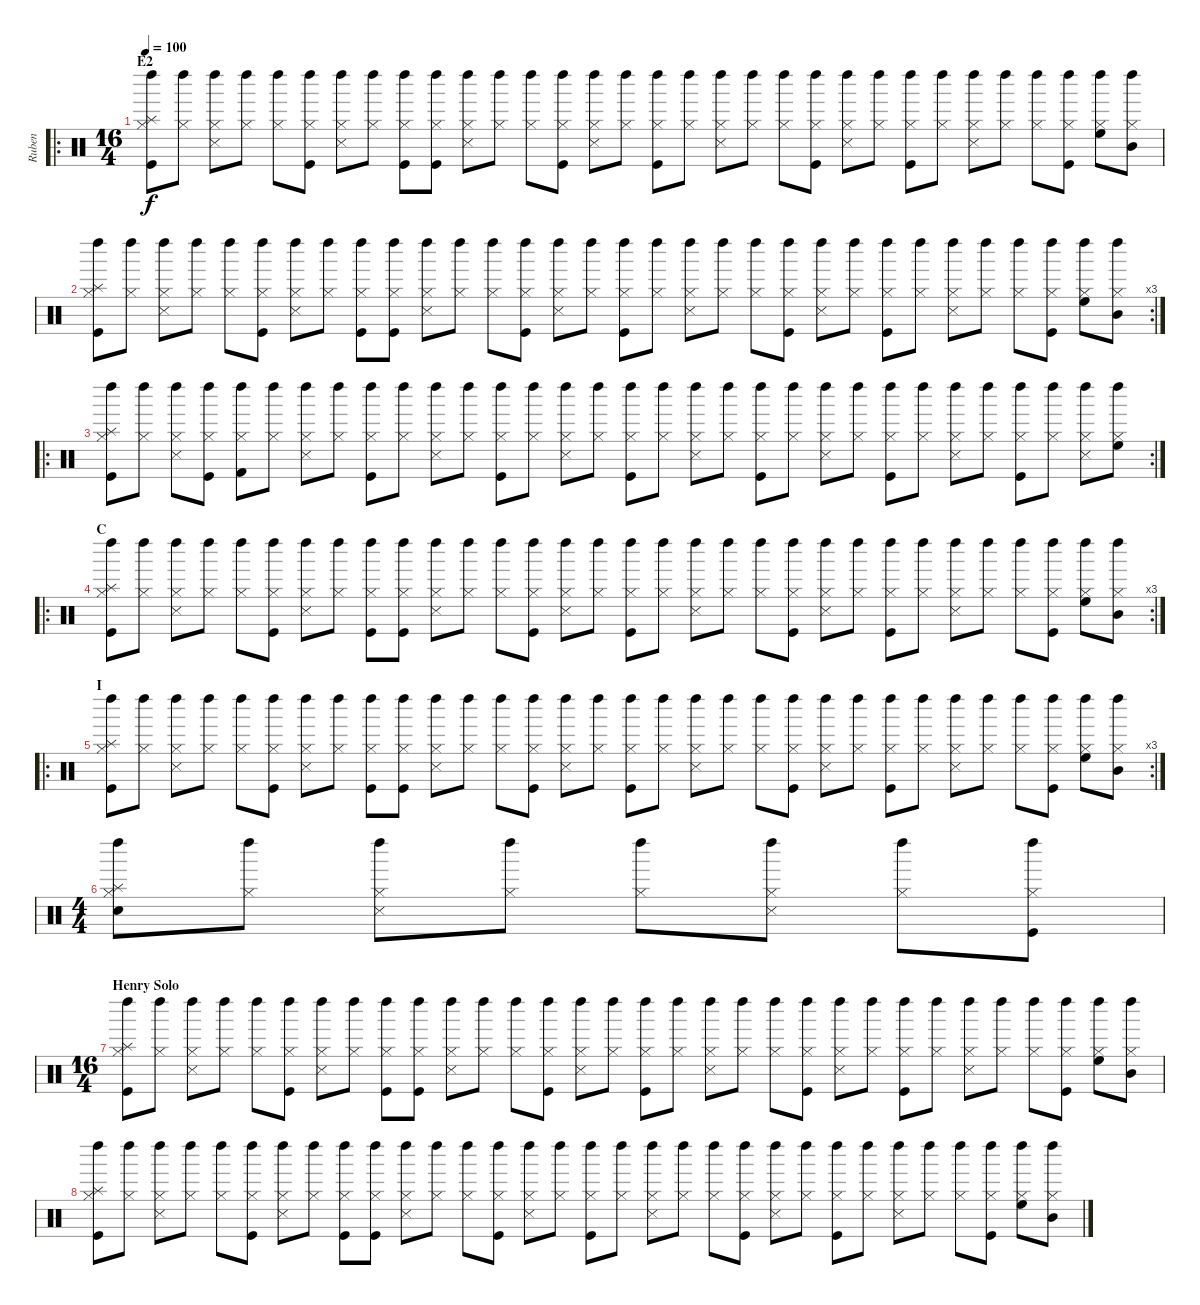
\track ("Ruben" "Ruben") {instrument percussion}
\staff {score}
\articulation defaults
\ro
\ts (16 4)
\section ("" "E2")
\tempo 100
\clef neutral
\ks c
("Left Maraca (hit)" "Hi-Hat (closed)" "Splash (hit)" "Kick (hit)").8{dy f} ("Left Maraca (hit)" "Hi-Hat (closed)").8 ("Left Maraca (hit)" "Hi-Hat (closed)" "Snare (side stick) 3").8 ("Left Maraca (hit)" "Hi-Hat (closed)").8 ("Left Maraca (hit)" "Hi-Hat (closed)").8 ("Left Maraca (hit)" "Hi-Hat (closed)" "Kick (hit)").8 ("Left Maraca (hit)" "Hi-Hat (closed)" "Snare (side stick) 3").8 ("Left Maraca (hit)" "Hi-Hat (closed)").8 ("Left Maraca (hit)" "Hi-Hat (closed)" "Kick (hit)").8 ("Left Maraca (hit)" "Hi-Hat (closed)" "Kick (hit)").8 ("Left Maraca (hit)" "Hi-Hat (closed)" "Snare (side stick) 3").8 ("Left Maraca (hit)" "Hi-Hat (closed)").8 ("Left Maraca (hit)" "Hi-Hat (closed)").8 ("Left Maraca (hit)" "Hi-Hat (closed)" "Kick (hit)").8 ("Left Maraca (hit)" "Hi-Hat (closed)" "Snare (side stick) 3").8 ("Left Maraca (hit)" "Hi-Hat (closed)").8 ("Left Maraca (hit)" "Hi-Hat (closed)" "Kick (hit)").8 ("Left Maraca (hit)" "Hi-Hat (closed)").8 ("Left Maraca (hit)" "Hi-Hat (closed)" "Snare (side stick) 3").8 ("Left Maraca (hit)" "Hi-Hat (closed)").8 ("Left Maraca (hit)" "Hi-Hat (closed)").8 ("Left Maraca (hit)" "Hi-Hat (closed)" "Kick (hit)").8 ("Left Maraca (hit)" "Hi-Hat (closed)" "Snare (side stick) 3").8 ("Left Maraca (hit)" "Hi-Hat (closed)").8 ("Left Maraca (hit)" "Hi-Hat (closed)" "Kick (hit)").8 ("Left Maraca (hit)" "Hi-Hat (closed)").8 ("Left Maraca (hit)" "Hi-Hat (closed)" "Snare (side stick) 3").8 ("Left Maraca (hit)" "Hi-Hat (closed)").8 ("Left Maraca (hit)" "Hi-Hat (closed)").8 ("Left Maraca (hit)" "Hi-Hat (closed)" "Kick (hit)").8 ("Left Maraca (hit)" "Hi-Hat (closed)" "High Floor Tom (hit)").8 ("Left Maraca (hit)" "Hi-Hat (closed)" "Mid Tom (hit)").8 |
\rc 3
("Left Maraca (hit)" "Hi-Hat (closed)" "Splash (hit)" "Kick (hit)").8 ("Left Maraca (hit)" "Hi-Hat (closed)").8 ("Left Maraca (hit)" "Hi-Hat (closed)" "Snare (side stick) 3").8 ("Left Maraca (hit)" "Hi-Hat (closed)").8 ("Left Maraca (hit)" "Hi-Hat (closed)").8 ("Left Maraca (hit)" "Hi-Hat (closed)" "Kick (hit)").8 ("Left Maraca (hit)" "Hi-Hat (closed)" "Snare (side stick) 3").8 ("Left Maraca (hit)" "Hi-Hat (closed)").8 ("Left Maraca (hit)" "Hi-Hat (closed)" "Kick (hit)").8 ("Left Maraca (hit)" "Hi-Hat (closed)" "Kick (hit)").8 ("Left Maraca (hit)" "Hi-Hat (closed)" "Snare (side stick) 3").8 ("Left Maraca (hit)" "Hi-Hat (closed)").8 ("Left Maraca (hit)" "Hi-Hat (closed)").8 ("Left Maraca (hit)" "Hi-Hat (closed)" "Kick (hit)").8 ("Left Maraca (hit)" "Hi-Hat (closed)" "Snare (side stick) 3").8 ("Left Maraca (hit)" "Hi-Hat (closed)").8 ("Left Maraca (hit)" "Hi-Hat (closed)" "Kick (hit)").8 ("Left Maraca (hit)" "Hi-Hat (closed)").8 ("Left Maraca (hit)" "Hi-Hat (closed)" "Snare (side stick) 3").8 ("Left Maraca (hit)" "Hi-Hat (closed)").8 ("Left Maraca (hit)" "Hi-Hat (closed)").8 ("Left Maraca (hit)" "Hi-Hat (closed)" "Kick (hit)").8 ("Left Maraca (hit)" "Hi-Hat (closed)" "Snare (side stick) 3").8 ("Left Maraca (hit)" "Hi-Hat (closed)").8 ("Left Maraca (hit)" "Hi-Hat (closed)" "Kick (hit)").8 ("Left Maraca (hit)" "Hi-Hat (closed)").8 ("Left Maraca (hit)" "Hi-Hat (closed)" "Snare (side stick) 3").8 ("Left Maraca (hit)" "Hi-Hat (closed)").8 ("Left Maraca (hit)" "Hi-Hat (closed)").8 ("Left Maraca (hit)" "Hi-Hat (closed)" "Kick (hit)").8 ("Left Maraca (hit)" "Hi-Hat (closed)" "High Floor Tom (hit)").8 ("Left Maraca (hit)" "Hi-Hat (closed)" "Mid Tom (hit)").8 |
\ro
\rc 2
("Left Maraca (hit)" "Hi-Hat (closed)" "Splash (hit)" "Kick (hit)").8 ("Left Maraca (hit)" "Hi-Hat (closed)").8 ("Left Maraca (hit)" "Hi-Hat (closed)" "Snare (side stick) 3").8 ("Left Maraca (hit)" "Hi-Hat (closed)" "Kick (hit)").8 ("Left Maraca (hit)" "Hi-Hat (closed)" "Kick (hit) 2").8 ("Left Maraca (hit)" "Hi-Hat (closed)").8 ("Left Maraca (hit)" "Hi-Hat (closed)" "Snare (side stick) 3").8 ("Left Maraca (hit)" "Hi-Hat (closed)").8 ("Left Maraca (hit)" "Hi-Hat (closed)" "Kick (hit)").8 ("Left Maraca (hit)" "Hi-Hat (closed)").8 ("Left Maraca (hit)" "Hi-Hat (closed)" "Snare (side stick) 3").8 ("Left Maraca (hit)" "Hi-Hat (closed)").8 ("Left Maraca (hit)" "Hi-Hat (closed)" "Kick (hit)").8 ("Left Maraca (hit)" "Hi-Hat (closed)").8 ("Left Maraca (hit)" "Hi-Hat (closed)" "Snare (side stick) 3").8 ("Left Maraca (hit)" "Hi-Hat (closed)").8 ("Left Maraca (hit)" "Hi-Hat (closed)" "Kick (hit)").8 ("Left Maraca (hit)" "Hi-Hat (closed)").8 ("Left Maraca (hit)" "Hi-Hat (closed)" "Snare (side stick) 3").8 ("Left Maraca (hit)" "Hi-Hat (closed)").8 ("Left Maraca (hit)" "Hi-Hat (closed)" "Kick (hit)").8 ("Left Maraca (hit)" "Hi-Hat (closed)").8 ("Left Maraca (hit)" "Hi-Hat (closed)" "Snare (side stick) 3").8 ("Left Maraca (hit)" "Hi-Hat (closed)").8 ("Left Maraca (hit)" "Hi-Hat (closed)" "Kick (hit)").8 ("Left Maraca (hit)" "Hi-Hat (closed)").8 ("Left Maraca (hit)" "Hi-Hat (closed)" "Snare (side stick) 3").8 ("Left Maraca (hit)" "Hi-Hat (closed)").8 ("Left Maraca (hit)" "Hi-Hat (closed)" "Kick (hit)").8 ("Left Maraca (hit)" "Hi-Hat (closed)").8 ("Left Maraca (hit)" "Hi-Hat (closed)" "Snare (side stick) 3").8 ("Left Maraca (hit)" "Hi-Hat (closed)" "High Floor Tom (hit)").8 |
\ro
\rc 3
\section ("" "C")
("Left Maraca (hit)" "Hi-Hat (closed)" "Splash (hit)" "Kick (hit)").8 ("Left Maraca (hit)" "Hi-Hat (closed)").8 ("Left Maraca (hit)" "Hi-Hat (closed)" "Snare (side stick) 3").8 ("Left Maraca (hit)" "Hi-Hat (closed)").8 ("Left Maraca (hit)" "Hi-Hat (closed)").8 ("Left Maraca (hit)" "Hi-Hat (closed)" "Kick (hit)").8 ("Left Maraca (hit)" "Hi-Hat (closed)" "Snare (side stick) 3").8 ("Left Maraca (hit)" "Hi-Hat (closed)").8 ("Left Maraca (hit)" "Hi-Hat (closed)" "Kick (hit)").8 ("Left Maraca (hit)" "Hi-Hat (closed)" "Kick (hit)").8 ("Left Maraca (hit)" "Hi-Hat (closed)" "Snare (side stick) 3").8 ("Left Maraca (hit)" "Hi-Hat (closed)").8 ("Left Maraca (hit)" "Hi-Hat (closed)").8 ("Left Maraca (hit)" "Hi-Hat (closed)" "Kick (hit)").8 ("Left Maraca (hit)" "Hi-Hat (closed)" "Snare (side stick) 3").8 ("Left Maraca (hit)" "Hi-Hat (closed)").8 ("Left Maraca (hit)" "Hi-Hat (closed)" "Kick (hit)").8 ("Left Maraca (hit)" "Hi-Hat (closed)").8 ("Left Maraca (hit)" "Hi-Hat (closed)" "Snare (side stick) 3").8 ("Left Maraca (hit)" "Hi-Hat (closed)").8 ("Left Maraca (hit)" "Hi-Hat (closed)").8 ("Left Maraca (hit)" "Hi-Hat (closed)" "Kick (hit)").8 ("Left Maraca (hit)" "Hi-Hat (closed)" "Snare (side stick) 3").8 ("Left Maraca (hit)" "Hi-Hat (closed)").8 ("Left Maraca (hit)" "Hi-Hat (closed)" "Kick (hit)").8 ("Left Maraca (hit)" "Hi-Hat (closed)").8 ("Left Maraca (hit)" "Hi-Hat (closed)" "Snare (side stick) 3").8 ("Left Maraca (hit)" "Hi-Hat (closed)").8 ("Left Maraca (hit)" "Hi-Hat (closed)").8 ("Left Maraca (hit)" "Hi-Hat (closed)" "Kick (hit)").8 ("Left Maraca (hit)" "Hi-Hat (closed)" "High Floor Tom (hit)").8 ("Left Maraca (hit)" "Hi-Hat (closed)" "Mid Tom (hit)").8 |
\ro
\rc 3
\section ("" "I")
("Left Maraca (hit)" "Hi-Hat (closed)" "Splash (hit)" "Kick (hit)").8 ("Left Maraca (hit)" "Hi-Hat (closed)").8 ("Left Maraca (hit)" "Hi-Hat (closed)" "Snare (side stick) 3").8 ("Left Maraca (hit)" "Hi-Hat (closed)").8 ("Left Maraca (hit)" "Hi-Hat (closed)").8 ("Left Maraca (hit)" "Hi-Hat (closed)" "Kick (hit)").8 ("Left Maraca (hit)" "Hi-Hat (closed)" "Snare (side stick) 3").8 ("Left Maraca (hit)" "Hi-Hat (closed)").8 ("Left Maraca (hit)" "Hi-Hat (closed)" "Kick (hit)").8 ("Left Maraca (hit)" "Hi-Hat (closed)" "Kick (hit)").8 ("Left Maraca (hit)" "Hi-Hat (closed)" "Snare (side stick) 3").8 ("Left Maraca (hit)" "Hi-Hat (closed)").8 ("Left Maraca (hit)" "Hi-Hat (closed)").8 ("Left Maraca (hit)" "Hi-Hat (closed)" "Kick (hit)").8 ("Left Maraca (hit)" "Hi-Hat (closed)" "Snare (side stick) 3").8 ("Left Maraca (hit)" "Hi-Hat (closed)").8 ("Left Maraca (hit)" "Hi-Hat (closed)" "Kick (hit)").8 ("Left Maraca (hit)" "Hi-Hat (closed)").8 ("Left Maraca (hit)" "Hi-Hat (closed)" "Snare (side stick) 3").8 ("Left Maraca (hit)" "Hi-Hat (closed)").8 ("Left Maraca (hit)" "Hi-Hat (closed)").8 ("Left Maraca (hit)" "Hi-Hat (closed)" "Kick (hit)").8 ("Left Maraca (hit)" "Hi-Hat (closed)" "Snare (side stick) 3").8 ("Left Maraca (hit)" "Hi-Hat (closed)").8 ("Left Maraca (hit)" "Hi-Hat (closed)" "Kick (hit)").8 ("Left Maraca (hit)" "Hi-Hat (closed)").8 ("Left Maraca (hit)" "Hi-Hat (closed)" "Snare (side stick) 3").8 ("Left Maraca (hit)" "Hi-Hat (closed)").8 ("Left Maraca (hit)" "Hi-Hat (closed)").8 ("Left Maraca (hit)" "Hi-Hat (closed)" "Kick (hit)").8 ("Left Maraca (hit)" "Hi-Hat (closed)" "High Floor Tom (hit)").8 ("Left Maraca (hit)" "Hi-Hat (closed)" "Mid Tom (hit)").8 |
\ts (4 4)
("Left Maraca (hit)" "Hi-Hat (closed)" "Splash (hit)" "Snare (hit)").8 ("Left Maraca (hit)" "Hi-Hat (closed)").8 ("Left Maraca (hit)" "Hi-Hat (closed)" "Snare (side stick) 3").8 ("Left Maraca (hit)" "Hi-Hat (closed)").8 ("Left Maraca (hit)" "Hi-Hat (closed)").8 ("Left Maraca (hit)" "Hi-Hat (closed)" "Snare (side stick) 3").8 ("Left Maraca (hit)" "Hi-Hat (closed)").8 ("Left Maraca (hit)" "Hi-Hat (closed)" "Kick (hit)").8 |
\ts (16 4)
\section ("" "Henry Solo")
("Left Maraca (hit)" "Hi-Hat (closed)" "Splash (hit)" "Kick (hit)").8 ("Left Maraca (hit)" "Hi-Hat (closed)").8 ("Left Maraca (hit)" "Hi-Hat (closed)" "Snare (side stick) 3").8 ("Left Maraca (hit)" "Hi-Hat (closed)").8 ("Left Maraca (hit)" "Hi-Hat (closed)").8 ("Left Maraca (hit)" "Hi-Hat (closed)" "Kick (hit)").8 ("Left Maraca (hit)" "Hi-Hat (closed)" "Snare (side stick) 3").8 ("Left Maraca (hit)" "Hi-Hat (closed)").8 ("Left Maraca (hit)" "Hi-Hat (closed)" "Kick (hit)").8 ("Left Maraca (hit)" "Hi-Hat (closed)" "Kick (hit)").8 ("Left Maraca (hit)" "Hi-Hat (closed)" "Snare (side stick) 3").8 ("Left Maraca (hit)" "Hi-Hat (closed)").8 ("Left Maraca (hit)" "Hi-Hat (closed)").8 ("Left Maraca (hit)" "Hi-Hat (closed)" "Kick (hit)").8 ("Left Maraca (hit)" "Hi-Hat (closed)" "Snare (side stick) 3").8 ("Left Maraca (hit)" "Hi-Hat (closed)").8 ("Left Maraca (hit)" "Hi-Hat (closed)" "Kick (hit)").8 ("Left Maraca (hit)" "Hi-Hat (closed)").8 ("Left Maraca (hit)" "Hi-Hat (closed)" "Snare (side stick) 3").8 ("Left Maraca (hit)" "Hi-Hat (closed)").8 ("Left Maraca (hit)" "Hi-Hat (closed)").8 ("Left Maraca (hit)" "Hi-Hat (closed)" "Kick (hit)").8 ("Left Maraca (hit)" "Hi-Hat (closed)" "Snare (side stick) 3").8 ("Left Maraca (hit)" "Hi-Hat (closed)").8 ("Left Maraca (hit)" "Hi-Hat (closed)" "Kick (hit)").8 ("Left Maraca (hit)" "Hi-Hat (closed)").8 ("Left Maraca (hit)" "Hi-Hat (closed)" "Snare (side stick) 3").8 ("Left Maraca (hit)" "Hi-Hat (closed)").8 ("Left Maraca (hit)" "Hi-Hat (closed)").8 ("Left Maraca (hit)" "Hi-Hat (closed)" "Kick (hit)").8 ("Left Maraca (hit)" "Hi-Hat (closed)" "High Floor Tom (hit)").8 ("Left Maraca (hit)" "Hi-Hat (closed)" "Mid Tom (hit)").8 |
("Left Maraca (hit)" "Hi-Hat (closed)" "Splash (hit)" "Kick (hit)").8 ("Left Maraca (hit)" "Hi-Hat (closed)").8 ("Left Maraca (hit)" "Hi-Hat (closed)" "Snare (side stick) 3").8 ("Left Maraca (hit)" "Hi-Hat (closed)").8 ("Left Maraca (hit)" "Hi-Hat (closed)").8 ("Left Maraca (hit)" "Hi-Hat (closed)" "Kick (hit)").8 ("Left Maraca (hit)" "Hi-Hat (closed)" "Snare (side stick) 3").8 ("Left Maraca (hit)" "Hi-Hat (closed)").8 ("Left Maraca (hit)" "Hi-Hat (closed)" "Kick (hit)").8 ("Left Maraca (hit)" "Hi-Hat (closed)" "Kick (hit)").8 ("Left Maraca (hit)" "Hi-Hat (closed)" "Snare (side stick) 3").8 ("Left Maraca (hit)" "Hi-Hat (closed)").8 ("Left Maraca (hit)" "Hi-Hat (closed)").8 ("Left Maraca (hit)" "Hi-Hat (closed)" "Kick (hit)").8 ("Left Maraca (hit)" "Hi-Hat (closed)" "Snare (side stick) 3").8 ("Left Maraca (hit)" "Hi-Hat (closed)").8 ("Left Maraca (hit)" "Hi-Hat (closed)" "Kick (hit)").8 ("Left Maraca (hit)" "Hi-Hat (closed)").8 ("Left Maraca (hit)" "Hi-Hat (closed)" "Snare (side stick) 3").8 ("Left Maraca (hit)" "Hi-Hat (closed)").8 ("Left Maraca (hit)" "Hi-Hat (closed)").8 ("Left Maraca (hit)" "Hi-Hat (closed)" "Kick (hit)").8 ("Left Maraca (hit)" "Hi-Hat (closed)" "Snare (side stick) 3").8 ("Left Maraca (hit)" "Hi-Hat (closed)").8 ("Left Maraca (hit)" "Hi-Hat (closed)" "Kick (hit)").8 ("Left Maraca (hit)" "Hi-Hat (closed)").8 ("Left Maraca (hit)" "Hi-Hat (closed)" "Snare (side stick) 3").8 ("Left Maraca (hit)" "Hi-Hat (closed)").8 ("Left Maraca (hit)" "Hi-Hat (closed)").8 ("Left Maraca (hit)" "Hi-Hat (closed)" "Kick (hit)").8 ("Left Maraca (hit)" "Hi-Hat (closed)" "High Floor Tom (hit)").8 ("Left Maraca (hit)" "Hi-Hat (closed)" "Mid Tom (hit)").8
